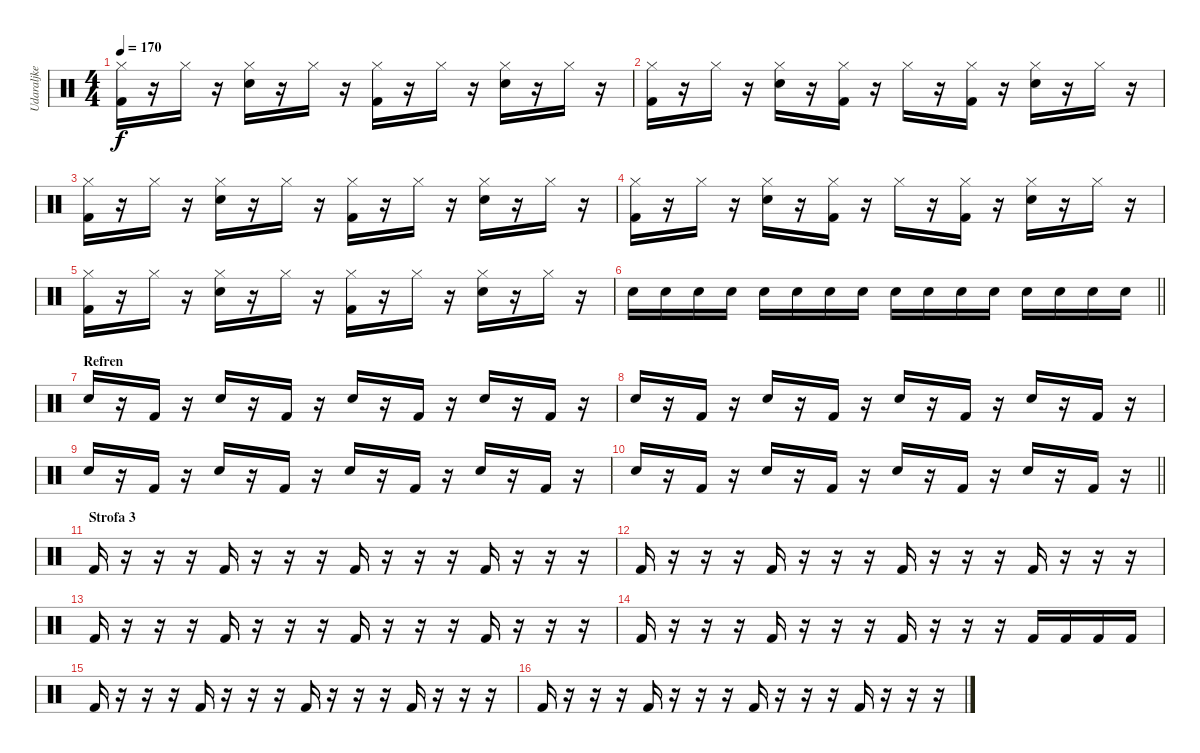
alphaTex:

\track ("Udaraljke" "Udaraljke") {instrument percussion}
\staff {score}
\articulation defaults
\ts (4 4)
\tempo 170
\clef neutral
\ks c
("Hi-Hat (closed)" "Kick (hit) 2").16{dy f} r.16 "Hi-Hat (closed)".16 r.16 ("Hi-Hat (closed)" "Snare (hit) 2").16 r.16 "Hi-Hat (closed)".16 r.16 ("Hi-Hat (closed)" "Kick (hit) 2").16 r.16 "Hi-Hat (closed)".16 r.16 ("Hi-Hat (closed)" "Snare (hit) 2").16 r.16 "Hi-Hat (closed)".16 r.16 |
("Hi-Hat (closed)" "Kick (hit) 2").16 r.16 "Hi-Hat (closed)".16 r.16 ("Hi-Hat (closed)" "Snare (hit) 2").16 r.16 ("Hi-Hat (closed)" "Kick (hit) 2").16 r.16 "Hi-Hat (closed)".16 r.16 ("Hi-Hat (closed)" "Kick (hit) 2").16 r.16 ("Hi-Hat (closed)" "Snare (hit) 2").16 r.16 "Hi-Hat (closed)".16 r.16 |
("Hi-Hat (closed)" "Kick (hit) 2").16 r.16 "Hi-Hat (closed)".16 r.16 ("Hi-Hat (closed)" "Snare (hit) 2").16 r.16 "Hi-Hat (closed)".16 r.16 ("Hi-Hat (closed)" "Kick (hit) 2").16 r.16 "Hi-Hat (closed)".16 r.16 ("Hi-Hat (closed)" "Snare (hit) 2").16 r.16 "Hi-Hat (closed)".16 r.16 |
("Hi-Hat (closed)" "Kick (hit) 2").16 r.16 "Hi-Hat (closed)".16 r.16 ("Hi-Hat (closed)" "Snare (hit) 2").16 r.16 ("Hi-Hat (closed)" "Kick (hit) 2").16 r.16 "Hi-Hat (closed)".16 r.16 ("Hi-Hat (closed)" "Kick (hit) 2").16 r.16 ("Hi-Hat (closed)" "Snare (hit) 2").16 r.16 "Hi-Hat (closed)".16 r.16 |
("Hi-Hat (closed)" "Kick (hit) 2").16 r.16 "Hi-Hat (closed)".16 r.16 ("Hi-Hat (closed)" "Snare (hit) 2").16 r.16 "Hi-Hat (closed)".16 r.16 ("Hi-Hat (closed)" "Kick (hit) 2").16 r.16 "Hi-Hat (closed)".16 r.16 ("Hi-Hat (closed)" "Snare (hit) 2").16 r.16 "Hi-Hat (closed)".16 r.16 |
\barLineRight lightlight "Snare (hit) 2".16 "Snare (hit) 2".16 "Snare (hit) 2".16 "Snare (hit) 2".16 "Snare (hit) 2".16 "Snare (hit) 2".16 "Snare (hit) 2".16 "Snare (hit) 2".16 "Snare (hit) 2".16 "Snare (hit) 2".16 "Snare (hit) 2".16 "Snare (hit) 2".16 "Snare (hit) 2".16 "Snare (hit) 2".16 "Snare (hit) 2".16 "Snare (hit) 2".16
|
\section ("" "Refren")
"Snare (hit) 2".16 r.16 "Kick (hit) 2".16 r.16 "Snare (hit) 2".16 r.16 "Kick (hit) 2".16 r.16 "Snare (hit) 2".16 r.16 "Kick (hit) 2".16 r.16 "Snare (hit) 2".16 r.16 "Kick (hit) 2".16 r.16 |
"Snare (hit) 2".16 r.16 "Kick (hit) 2".16 r.16 "Snare (hit) 2".16 r.16 "Kick (hit) 2".16 r.16 "Snare (hit) 2".16 r.16 "Kick (hit) 2".16 r.16 "Snare (hit) 2".16 r.16 "Kick (hit) 2".16 r.16 |
"Snare (hit) 2".16 r.16 "Kick (hit) 2".16 r.16 "Snare (hit) 2".16 r.16 "Kick (hit) 2".16 r.16 "Snare (hit) 2".16 r.16 "Kick (hit) 2".16 r.16 "Snare (hit) 2".16 r.16 "Kick (hit) 2".16 r.16 |
\barLineRight lightlight "Snare (hit) 2".16
r.16 "Kick (hit) 2".16 r.16 "Snare (hit) 2".16 r.16 "Kick (hit) 2".16 r.16 "Snare (hit) 2".16 r.16 "Kick (hit) 2".16 r.16 "Snare (hit) 2".16 r.16 "Kick (hit) 2".16 r.16 |
\section ("" "Strofa 3")
"Kick (hit) 2".16 r.16 r.16 r.16 "Kick (hit) 2".16 r.16 r.16 r.16 "Kick (hit) 2".16 r.16 r.16 r.16 "Kick (hit) 2".16 r.16 r.16 r.16 |
"Kick (hit) 2".16 r.16 r.16 r.16 "Kick (hit) 2".16 r.16 r.16 r.16 "Kick (hit) 2".16 r.16 r.16 r.16 "Kick (hit) 2".16 r.16 r.16 r.16 |
"Kick (hit) 2".16 r.16 r.16 r.16 "Kick (hit) 2".16 r.16 r.16 r.16 "Kick (hit) 2".16 r.16 r.16 r.16 "Kick (hit) 2".16 r.16 r.16 r.16 |
"Kick (hit) 2".16 r.16 r.16 r.16 "Kick (hit) 2".16 r.16 r.16 r.16 "Kick (hit) 2".16 r.16 r.16 r.16 "Kick (hit) 2".16 "Kick (hit) 2".16 "Kick (hit) 2".16 "Kick (hit) 2".16 |
"Kick (hit) 2".16 r.16 r.16 r.16 "Kick (hit) 2".16 r.16 r.16 r.16 "Kick (hit) 2".16 r.16 r.16 r.16 "Kick (hit) 2".16 r.16 r.16 r.16 |
"Kick (hit) 2".16 r.16 r.16 r.16 "Kick (hit) 2".16 r.16 r.16 r.16 "Kick (hit) 2".16 r.16 r.16 r.16 "Kick (hit) 2".16 r.16 r.16 r.16
